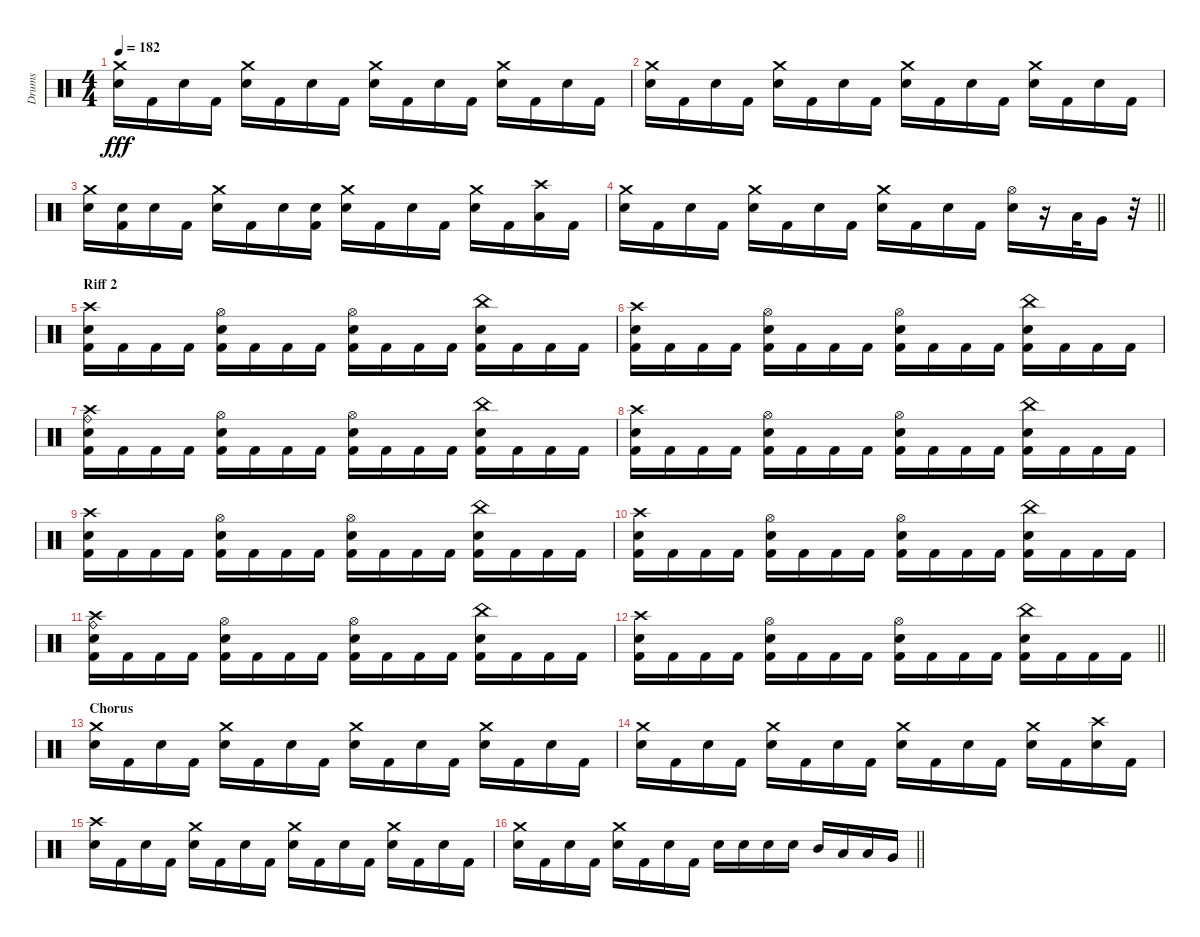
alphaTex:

\track ("Drums" "Drums") {instrument percussion}
\staff {score}
\articulation defaults
\ts (4 4)
\tempo 182
\clef neutral
\ks c
("Crash medium (hit)" "Snare (hit) 2").16{dy fff} "Kick (hit) 2".16 "Snare (hit) 2".16 "Kick (hit) 2".16 ("Crash medium (hit)" "Snare (hit) 2").16 "Kick (hit) 2".16 "Snare (hit) 2".16 "Kick (hit) 2".16 ("Crash medium (hit)" "Snare (hit) 2").16 "Kick (hit) 2".16 "Snare (hit) 2".16 "Kick (hit) 2".16 ("Crash medium (hit)" "Snare (hit) 2").16 "Kick (hit) 2".16 "Snare (hit) 2".16 "Kick (hit) 2".16 |
("Crash medium (hit)" "Snare (hit) 2").16 "Kick (hit) 2".16 "Snare (hit) 2".16 "Kick (hit) 2".16 ("Crash medium (hit)" "Snare (hit) 2").16 "Kick (hit) 2".16 "Snare (hit) 2".16 "Kick (hit) 2".16 ("Crash medium (hit)" "Snare (hit) 2").16 "Kick (hit) 2".16 "Snare (hit) 2".16 "Kick (hit) 2".16 ("Crash medium (hit)" "Snare (hit) 2").16 "Kick (hit) 2".16 "Snare (hit) 2".16 "Kick (hit) 2".16 |
("Crash medium (hit)" "Snare (hit) 2").16 ("Kick (hit) 2" "Snare (hit) 2").16 "Snare (hit) 2".16 "Kick (hit) 2".16 ("Crash medium (hit)" "Snare (hit) 2").16 "Kick (hit) 2".16 "Snare (hit) 2".16 ("Kick (hit) 2" "Snare (hit) 2").16 ("Crash medium (hit)" "Snare (hit) 2").16 "Kick (hit) 2".16 "Snare (hit) 2".16 "Kick (hit) 2".16 ("Crash medium (hit)" "Snare (hit) 2").16 "Kick (hit) 2".16 ("Crash high (hit)" "Low Tom (hit)").16 "Kick (hit) 2".16 |
\barLineRight lightlight
("Crash medium (hit)" "Snare (hit) 2").16 "Kick (hit) 2".16 "Snare (hit) 2".16 "Kick (hit) 2".16 ("Crash medium (hit)" "Snare (hit) 2").16 "Kick (hit) 2".16 "Snare (hit) 2".16 "Kick (hit) 2".16 ("Crash medium (hit)" "Snare (hit) 2").16 "Kick (hit) 2".16 "Snare (hit) 2".16 "Kick (hit) 2".16 ("Hi-Hat (open)" "Snare (hit) 2").16 r.16 "Low Tom (hit)".32 "Very Low Tom (hit)".16 r.32 |
\section ("" "Riff 2")
("Crash high (hit)" "Kick (hit) 2" "Snare (hit) 2").16 "Kick (hit) 2".16 "Kick (hit) 2".16 "Kick (hit) 2".16 ("Hi-Hat (open)" "Kick (hit) 2" "Snare (hit) 2").16 "Kick (hit) 2".16 "Kick (hit) 2".16 "Kick (hit) 2".16 ("Hi-Hat (open)" "Kick (hit) 2" "Snare (hit) 2").16 "Kick (hit) 2".16 "Kick (hit) 2".16 "Kick (hit) 2".16 ("China (hit)" "Kick (hit) 2" "Snare (hit) 2").16 "Kick (hit) 2".16 "Kick (hit) 2".16 "Kick (hit) 2".16 |
("Crash high (hit)" "Kick (hit) 2" "Snare (hit) 2").16 "Kick (hit) 2".16 "Kick (hit) 2".16 "Kick (hit) 2".16 ("Hi-Hat (open)" "Kick (hit) 2" "Snare (hit) 2").16 "Kick (hit) 2".16 "Kick (hit) 2".16 "Kick (hit) 2".16 ("Hi-Hat (open)" "Kick (hit) 2" "Snare (hit) 2").16 "Kick (hit) 2".16 "Kick (hit) 2".16 "Kick (hit) 2".16 ("China (hit)" "Kick (hit) 2" "Snare (hit) 2").16 "Kick (hit) 2".16 "Kick (hit) 2".16 "Kick (hit) 2".16 |
("Crash high (hit)" "Kick (hit) 2" "Snare (hit) 2" "Ride (bell)").16 "Kick (hit) 2".16 "Kick (hit) 2".16 "Kick (hit) 2".16 ("Hi-Hat (open)" "Kick (hit) 2" "Snare (hit) 2").16 "Kick (hit) 2".16 "Kick (hit) 2".16 "Kick (hit) 2".16 ("Hi-Hat (open)" "Kick (hit) 2" "Snare (hit) 2").16 "Kick (hit) 2".16 "Kick (hit) 2".16 "Kick (hit) 2".16 ("China (hit)" "Kick (hit) 2" "Snare (hit) 2").16 "Kick (hit) 2".16 "Kick (hit) 2".16 "Kick (hit) 2".16 |
("Crash high (hit)" "Kick (hit) 2" "Snare (hit) 2").16 "Kick (hit) 2".16 "Kick (hit) 2".16 "Kick (hit) 2".16 ("Hi-Hat (open)" "Kick (hit) 2" "Snare (hit) 2").16 "Kick (hit) 2".16 "Kick (hit) 2".16 "Kick (hit) 2".16 ("Hi-Hat (open)" "Kick (hit) 2" "Snare (hit) 2").16 "Kick (hit) 2".16 "Kick (hit) 2".16 "Kick (hit) 2".16 ("China (hit)" "Kick (hit) 2" "Snare (hit) 2").16 "Kick (hit) 2".16 "Kick (hit) 2".16 "Kick (hit) 2".16 |
("Crash high (hit)" "Kick (hit) 2" "Snare (hit) 2").16 "Kick (hit) 2".16 "Kick (hit) 2".16 "Kick (hit) 2".16 ("Hi-Hat (open)" "Kick (hit) 2" "Snare (hit) 2").16 "Kick (hit) 2".16 "Kick (hit) 2".16 "Kick (hit) 2".16 ("Hi-Hat (open)" "Kick (hit) 2" "Snare (hit) 2").16 "Kick (hit) 2".16 "Kick (hit) 2".16 "Kick (hit) 2".16 ("China (hit)" "Kick (hit) 2" "Snare (hit) 2").16 "Kick (hit) 2".16 "Kick (hit) 2".16 "Kick (hit) 2".16 |
("Crash high (hit)" "Kick (hit) 2" "Snare (hit) 2").16 "Kick (hit) 2".16 "Kick (hit) 2".16 "Kick (hit) 2".16 ("Hi-Hat (open)" "Kick (hit) 2" "Snare (hit) 2").16 "Kick (hit) 2".16 "Kick (hit) 2".16 "Kick (hit) 2".16 ("Hi-Hat (open)" "Kick (hit) 2" "Snare (hit) 2").16 "Kick (hit) 2".16 "Kick (hit) 2".16 "Kick (hit) 2".16 ("China (hit)" "Kick (hit) 2" "Snare (hit) 2").16 "Kick (hit) 2".16 "Kick (hit) 2".16 "Kick (hit) 2".16 |
("Crash high (hit)" "Kick (hit) 2" "Snare (hit) 2" "Ride (bell)").16 "Kick (hit) 2".16 "Kick (hit) 2".16 "Kick (hit) 2".16 ("Hi-Hat (open)" "Kick (hit) 2" "Snare (hit) 2").16 "Kick (hit) 2".16 "Kick (hit) 2".16 "Kick (hit) 2".16 ("Hi-Hat (open)" "Kick (hit) 2" "Snare (hit) 2").16 "Kick (hit) 2".16 "Kick (hit) 2".16 "Kick (hit) 2".16 ("China (hit)" "Kick (hit) 2" "Snare (hit) 2").16 "Kick (hit) 2".16 "Kick (hit) 2".16 "Kick (hit) 2".16 |
\barLineRight lightlight
("Crash high (hit)" "Kick (hit) 2" "Snare (hit) 2").16 "Kick (hit) 2".16 "Kick (hit) 2".16 "Kick (hit) 2".16 ("Hi-Hat (open)" "Kick (hit) 2" "Snare (hit) 2").16 "Kick (hit) 2".16 "Kick (hit) 2".16 "Kick (hit) 2".16 ("Hi-Hat (open)" "Kick (hit) 2" "Snare (hit) 2").16 "Kick (hit) 2".16 "Kick (hit) 2".16 "Kick (hit) 2".16 ("China (hit)" "Kick (hit) 2" "Snare (hit) 2").16 "Kick (hit) 2".16 "Kick (hit) 2".16 "Kick (hit) 2".16 |
\section ("" "Chorus")
("Crash medium (hit)" "Snare (hit) 2").16 "Kick (hit) 2".16 "Snare (hit) 2".16 "Kick (hit) 2".16 ("Crash medium (hit)" "Snare (hit) 2").16 "Kick (hit) 2".16 "Snare (hit) 2".16 "Kick (hit) 2".16 ("Crash medium (hit)" "Snare (hit) 2").16 "Kick (hit) 2".16 "Snare (hit) 2".16 "Kick (hit) 2".16 ("Crash medium (hit)" "Snare (hit) 2").16 "Kick (hit) 2".16 "Snare (hit) 2".16 "Kick (hit) 2".16 |
("Crash medium (hit)" "Snare (hit) 2").16 "Kick (hit) 2".16 "Snare (hit) 2".16 "Kick (hit) 2".16 ("Crash medium (hit)" "Snare (hit) 2").16 "Kick (hit) 2".16 "Snare (hit) 2".16 "Kick (hit) 2".16 ("Crash medium (hit)" "Snare (hit) 2").16 "Kick (hit) 2".16 "Snare (hit) 2".16 "Kick (hit) 2".16 ("Crash medium (hit)" "Snare (hit) 2").16 "Kick (hit) 2".16 ("Crash high (hit)" "Snare (hit) 2").16 "Kick (hit) 2".16 |
("Crash high (hit)" "Snare (hit) 2").16 "Kick (hit) 2".16 "Snare (hit) 2".16 "Kick (hit) 2".16 ("Crash medium (hit)" "Snare (hit) 2").16 "Kick (hit) 2".16 "Snare (hit) 2".16 "Kick (hit) 2".16 ("Crash medium (hit)" "Snare (hit) 2").16 "Kick (hit) 2".16 "Snare (hit) 2".16 "Kick (hit) 2".16 ("Crash medium (hit)" "Snare (hit) 2").16 "Kick (hit) 2".16 "Snare (hit) 2".16 "Kick (hit) 2".16 |
\barLineRight lightlight
("Crash medium (hit)" "Snare (hit) 2").16 "Kick (hit) 2".16 "Snare (hit) 2".16 "Kick (hit) 2".16 ("Crash medium (hit)" "Snare (hit) 2").16 "Kick (hit) 2".16 "Snare (hit) 2".16 "Kick (hit) 2".16 "Snare (hit) 2".16 "Snare (hit) 2".16 "Snare (hit) 2".16 "Snare (hit) 2".16 "Mid Tom (hit)".16 "Low Tom (hit)".16 "Low Tom (hit)".16 "Very Low Tom (hit)".16
